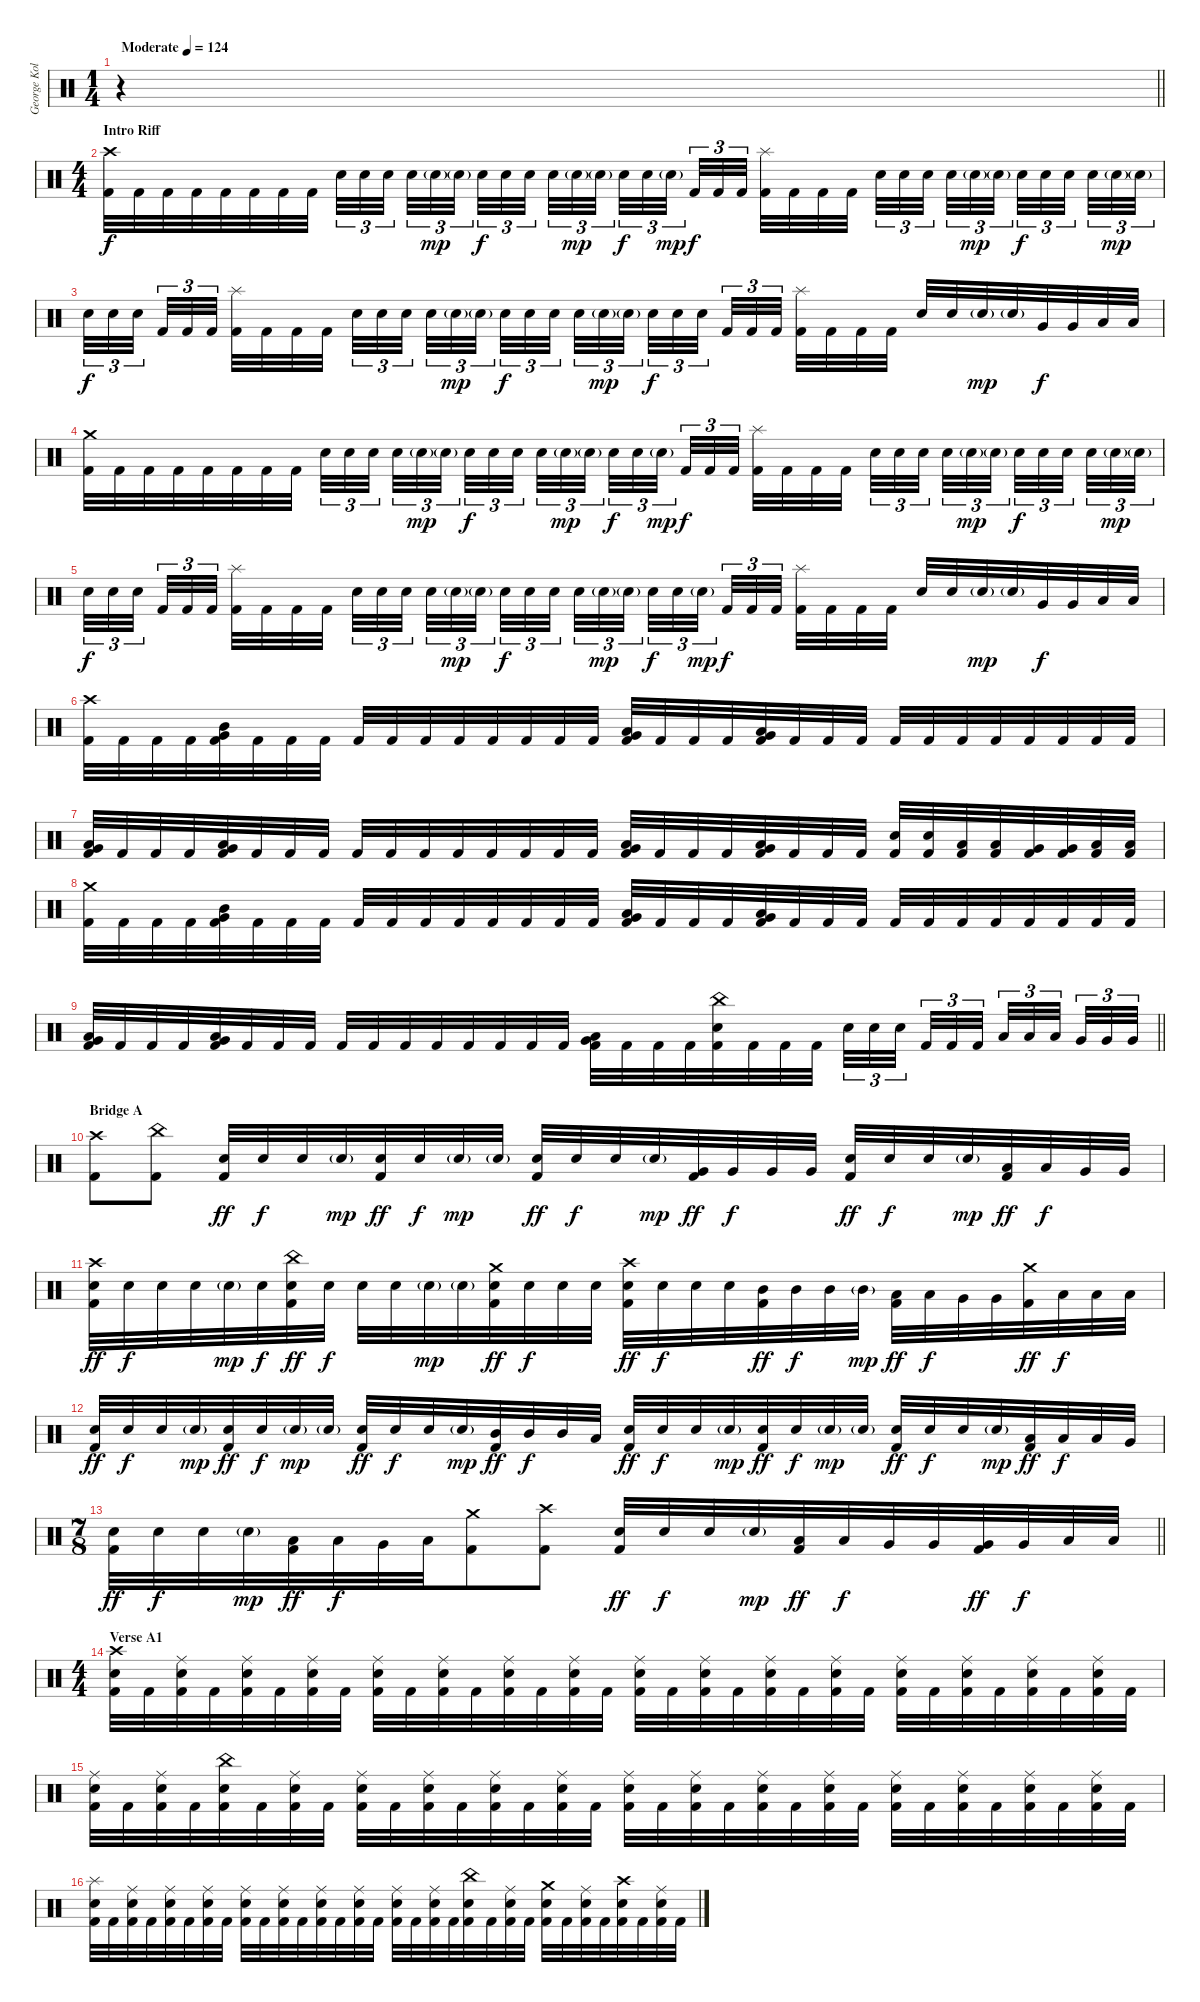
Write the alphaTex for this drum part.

\track ("George Kollias" "George Kol") {instrument percussion}
\staff {score}
\articulation defaults
\ts (1 4)
\tempo (124 "Moderate")
\clef neutral
\barLineRight lightlight
\ks c
r.4{dy f} |
\ts (4 4)
\section ("" "Intro Riff")
("Crash high (hit)" "Kick (hit) 2").32 "Kick (hit) 2".32 "Kick (hit) 2".32 "Kick (hit) 2".32 "Kick (hit) 2".32 "Kick (hit) 2".32 "Kick (hit) 2".32 "Kick (hit) 2".32 "Electric Snare (hit)".32{tu (3 2)} "Electric Snare (hit)".32{tu (3 2)} "Electric Snare (hit)".32{tu (3 2) beam splitsecondary} "Electric Snare (hit)".32{tu (3 2)} "Electric Snare (hit)"{g}.32{tu (3 2) dy mp} "Electric Snare (hit)"{g}.32{tu (3 2) beam splitsecondary} "Electric Snare (hit)".32{tu (3 2) dy f} "Electric Snare (hit)".32{tu (3 2)} "Electric Snare (hit)".32{tu (3 2) beam splitsecondary} "Electric Snare (hit)".32{tu (3 2)} "Electric Snare (hit)"{g}.32{tu (3 2) dy mp} "Electric Snare (hit)"{g}.32{tu (3 2)} "Electric Snare (hit)".32{tu (3 2) dy f} "Electric Snare (hit)".32{tu (3 2)} "Electric Snare (hit)"{g}.32{tu (3 2) dy mp beam splitsecondary} "Kick (hit) 2".32{tu (3 2) dy f} "Kick (hit) 2".32{tu (3 2)} "Kick (hit) 2".32{tu (3 2) beam splitsecondary} ("Splash (hit)" "Kick (hit) 2").32 "Kick (hit) 2".32 "Kick (hit) 2".32 "Kick (hit) 2".32 "Electric Snare (hit)".32{tu (3 2)} "Electric Snare (hit)".32{tu (3 2)} "Electric Snare (hit)".32{tu (3 2) beam splitsecondary} "Electric Snare (hit)".32{tu (3 2)} "Electric Snare (hit)"{g}.32{tu (3 2) dy mp} "Electric Snare (hit)"{g}.32{tu (3 2) beam splitsecondary} "Electric Snare (hit)".32{tu (3 2) dy f} "Electric Snare (hit)".32{tu (3 2)} "Electric Snare (hit)".32{tu (3 2) beam splitsecondary} "Electric Snare (hit)".32{tu (3 2)} "Electric Snare (hit)"{g}.32{tu (3 2) dy mp} "Electric Snare (hit)"{g}.32{tu (3 2)} |
"Electric Snare (hit)".32{tu (3 2) dy f} "Electric Snare (hit)".32{tu (3 2)} "Electric Snare (hit)".32{tu (3 2) beam splitsecondary} "Kick (hit) 2".32{tu (3 2)} "Kick (hit) 2".32{tu (3 2)} "Kick (hit) 2".32{tu (3 2) beam splitsecondary} ("Splash (hit)" "Kick (hit) 2").32 "Kick (hit) 2".32 "Kick (hit) 2".32 "Kick (hit) 2".32 "Electric Snare (hit)".32{tu (3 2)} "Electric Snare (hit)".32{tu (3 2)} "Electric Snare (hit)".32{tu (3 2) beam splitsecondary} "Electric Snare (hit)".32{tu (3 2)} "Electric Snare (hit)"{g}.32{tu (3 2) dy mp} "Electric Snare (hit)"{g}.32{tu (3 2) beam splitsecondary} "Electric Snare (hit)".32{tu (3 2) dy f} "Electric Snare (hit)".32{tu (3 2)} "Electric Snare (hit)".32{tu (3 2) beam splitsecondary} "Electric Snare (hit)".32{tu (3 2)} "Electric Snare (hit)"{g}.32{tu (3 2) dy mp} "Electric Snare (hit)"{g}.32{tu (3 2)} "Electric Snare (hit)".32{tu (3 2) dy f} "Electric Snare (hit)".32{tu (3 2)} "Electric Snare (hit)".32{tu (3 2) beam splitsecondary} "Kick (hit) 2".32{tu (3 2)} "Kick (hit) 2".32{tu (3 2)} "Kick (hit) 2".32{tu (3 2) beam splitsecondary} ("Splash (hit)" "Kick (hit) 2").32 "Kick (hit) 2".32 "Kick (hit) 2".32 "Kick (hit) 2".32 "Electric Snare (hit)".32 "Electric Snare (hit)".32 "Electric Snare (hit)"{g}.32{dy mp} "Electric Snare (hit)"{g}.32 "Very Low Tom (hit)".32{dy f} "Very Low Tom (hit)".32 "Low Floor Tom (hit)".32 "Low Floor Tom (hit)".32 |
("Crash medium (hit)" "Kick (hit) 2").32 "Kick (hit) 2".32 "Kick (hit) 2".32 "Kick (hit) 2".32 "Kick (hit) 2".32 "Kick (hit) 2".32 "Kick (hit) 2".32 "Kick (hit) 2".32 "Electric Snare (hit)".32{tu (3 2)} "Electric Snare (hit)".32{tu (3 2)} "Electric Snare (hit)".32{tu (3 2) beam splitsecondary} "Electric Snare (hit)".32{tu (3 2)} "Electric Snare (hit)"{g}.32{tu (3 2) dy mp} "Electric Snare (hit)"{g}.32{tu (3 2) beam splitsecondary} "Electric Snare (hit)".32{tu (3 2) dy f} "Electric Snare (hit)".32{tu (3 2)} "Electric Snare (hit)".32{tu (3 2) beam splitsecondary} "Electric Snare (hit)".32{tu (3 2)} "Electric Snare (hit)"{g}.32{tu (3 2) dy mp} "Electric Snare (hit)"{g}.32{tu (3 2)} "Electric Snare (hit)".32{tu (3 2) dy f} "Electric Snare (hit)".32{tu (3 2)} "Electric Snare (hit)"{g}.32{tu (3 2) dy mp beam splitsecondary} "Kick (hit) 2".32{tu (3 2) dy f} "Kick (hit) 2".32{tu (3 2)} "Kick (hit) 2".32{tu (3 2) beam splitsecondary} ("Splash (hit)" "Kick (hit) 2").32 "Kick (hit) 2".32 "Kick (hit) 2".32 "Kick (hit) 2".32 "Electric Snare (hit)".32{tu (3 2)} "Electric Snare (hit)".32{tu (3 2)} "Electric Snare (hit)".32{tu (3 2) beam splitsecondary} "Electric Snare (hit)".32{tu (3 2)} "Electric Snare (hit)"{g}.32{tu (3 2) dy mp} "Electric Snare (hit)"{g}.32{tu (3 2) beam splitsecondary} "Electric Snare (hit)".32{tu (3 2) dy f} "Electric Snare (hit)".32{tu (3 2)} "Electric Snare (hit)".32{tu (3 2) beam splitsecondary} "Electric Snare (hit)".32{tu (3 2)} "Electric Snare (hit)"{g}.32{tu (3 2) dy mp} "Electric Snare (hit)"{g}.32{tu (3 2)} |
"Electric Snare (hit)".32{tu (3 2) dy f} "Electric Snare (hit)".32{tu (3 2)} "Electric Snare (hit)".32{tu (3 2) beam splitsecondary} "Kick (hit) 2".32{tu (3 2)} "Kick (hit) 2".32{tu (3 2)} "Kick (hit) 2".32{tu (3 2) beam splitsecondary} ("Splash (hit)" "Kick (hit) 2").32 "Kick (hit) 2".32 "Kick (hit) 2".32 "Kick (hit) 2".32 "Electric Snare (hit)".32{tu (3 2)} "Electric Snare (hit)".32{tu (3 2)} "Electric Snare (hit)".32{tu (3 2) beam splitsecondary} "Electric Snare (hit)".32{tu (3 2)} "Electric Snare (hit)"{g}.32{tu (3 2) dy mp} "Electric Snare (hit)"{g}.32{tu (3 2) beam splitsecondary} "Electric Snare (hit)".32{tu (3 2) dy f} "Electric Snare (hit)".32{tu (3 2)} "Electric Snare (hit)".32{tu (3 2) beam splitsecondary} "Electric Snare (hit)".32{tu (3 2)} "Electric Snare (hit)"{g}.32{tu (3 2) dy mp} "Electric Snare (hit)"{g}.32{tu (3 2)} "Electric Snare (hit)".32{tu (3 2) dy f} "Electric Snare (hit)".32{tu (3 2)} "Electric Snare (hit)"{g}.32{tu (3 2) dy mp beam splitsecondary} "Kick (hit) 2".32{tu (3 2) dy f} "Kick (hit) 2".32{tu (3 2)} "Kick (hit) 2".32{tu (3 2) beam splitsecondary} ("Splash (hit)" "Kick (hit) 2").32 "Kick (hit) 2".32 "Kick (hit) 2".32 "Kick (hit) 2".32 "Electric Snare (hit)".32 "Electric Snare (hit)".32 "Electric Snare (hit)"{g}.32{dy mp} "Electric Snare (hit)"{g}.32 "Very Low Tom (hit)".32{dy f} "Very Low Tom (hit)".32 "Low Floor Tom (hit)".32 "Low Floor Tom (hit)".32 |
("Crash high (hit)" "Kick (hit) 2").32 "Kick (hit) 2".32 "Kick (hit) 2".32 "Kick (hit) 2".32 ("Mid Tom (hit)" "Very Low Tom (hit)" "Kick (hit) 2").32 "Kick (hit) 2".32 "Kick (hit) 2".32 "Kick (hit) 2".32 "Kick (hit) 2".32 "Kick (hit) 2".32 "Kick (hit) 2".32 "Kick (hit) 2".32 "Kick (hit) 2".32 "Kick (hit) 2".32 "Kick (hit) 2".32 "Kick (hit) 2".32 ("Low Tom (hit)" "Very Low Tom (hit)" "Kick (hit) 2").32 "Kick (hit) 2".32 "Kick (hit) 2".32 "Kick (hit) 2".32 ("Very Low Tom (hit)" "Low Floor Tom (hit)" "Kick (hit) 2").32 "Kick (hit) 2".32 "Kick (hit) 2".32 "Kick (hit) 2".32 "Kick (hit) 2".32 "Kick (hit) 2".32 "Kick (hit) 2".32 "Kick (hit) 2".32 "Kick (hit) 2".32 "Kick (hit) 2".32 "Kick (hit) 2".32 "Kick (hit) 2".32 |
("Low Tom (hit)" "Very Low Tom (hit)" "Kick (hit) 2").32 "Kick (hit) 2".32 "Kick (hit) 2".32 "Kick (hit) 2".32 ("Very Low Tom (hit)" "Low Floor Tom (hit)" "Kick (hit) 2").32 "Kick (hit) 2".32 "Kick (hit) 2".32 "Kick (hit) 2".32 "Kick (hit) 2".32 "Kick (hit) 2".32 "Kick (hit) 2".32 "Kick (hit) 2".32 "Kick (hit) 2".32 "Kick (hit) 2".32 "Kick (hit) 2".32 "Kick (hit) 2".32 ("Low Tom (hit)" "Very Low Tom (hit)" "Kick (hit) 2").32 "Kick (hit) 2".32 "Kick (hit) 2".32 "Kick (hit) 2".32 ("Very Low Tom (hit)" "Low Floor Tom (hit)" "Kick (hit) 2").32 "Kick (hit) 2".32 "Kick (hit) 2".32 "Kick (hit) 2".32 ("Electric Snare (hit)" "Kick (hit) 2").32 ("Electric Snare (hit)" "Kick (hit) 2").32 ("Low Tom (hit)" "Kick (hit) 2").32 ("Low Tom (hit)" "Kick (hit) 2").32 ("Very Low Tom (hit)" "Kick (hit) 2").32 ("Very Low Tom (hit)" "Kick (hit) 2").32 ("Low Floor Tom (hit)" "Kick (hit) 2").32 ("Low Floor Tom (hit)" "Kick (hit) 2").32 |
("Crash medium (hit)" "Kick (hit) 2").32 "Kick (hit) 2".32 "Kick (hit) 2".32 "Kick (hit) 2".32 ("Mid Tom (hit)" "Very Low Tom (hit)" "Kick (hit) 2").32 "Kick (hit) 2".32 "Kick (hit) 2".32 "Kick (hit) 2".32 "Kick (hit) 2".32 "Kick (hit) 2".32 "Kick (hit) 2".32 "Kick (hit) 2".32 "Kick (hit) 2".32 "Kick (hit) 2".32 "Kick (hit) 2".32 "Kick (hit) 2".32 ("Low Tom (hit)" "Very Low Tom (hit)" "Kick (hit) 2").32 "Kick (hit) 2".32 "Kick (hit) 2".32 "Kick (hit) 2".32 ("Very Low Tom (hit)" "Low Floor Tom (hit)" "Kick (hit) 2").32 "Kick (hit) 2".32 "Kick (hit) 2".32 "Kick (hit) 2".32 "Kick (hit) 2".32 "Kick (hit) 2".32 "Kick (hit) 2".32 "Kick (hit) 2".32 "Kick (hit) 2".32 "Kick (hit) 2".32 "Kick (hit) 2".32 "Kick (hit) 2".32 |
\barLineRight lightlight
("Low Tom (hit)" "Very Low Tom (hit)" "Kick (hit) 2").32 "Kick (hit) 2".32 "Kick (hit) 2".32 "Kick (hit) 2".32 ("Very Low Tom (hit)" "Low Floor Tom (hit)" "Kick (hit) 2").32 "Kick (hit) 2".32 "Kick (hit) 2".32 "Kick (hit) 2".32 "Kick (hit) 2".32 "Kick (hit) 2".32 "Kick (hit) 2".32 "Kick (hit) 2".32 "Kick (hit) 2".32 "Kick (hit) 2".32 "Kick (hit) 2".32 "Kick (hit) 2".32 ("Low Tom (hit)" "Very Low Tom (hit)" "Kick (hit) 2").32 "Kick (hit) 2".32 "Kick (hit) 2".32 "Kick (hit) 2".32 ("China (hit)" "Electric Snare (hit)" "Kick (hit) 2").32 "Kick (hit) 2".32 "Kick (hit) 2".32 "Kick (hit) 2".32 "Electric Snare (hit)".32{tu (3 2)} "Electric Snare (hit)".32{tu (3 2)} "Electric Snare (hit)".32{tu (3 2) beam splitsecondary} "Kick (hit) 2".32{tu (3 2)} "Kick (hit) 2".32{tu (3 2)} "Kick (hit) 2".32{tu (3 2) beam splitsecondary} "Low Tom (hit)".32{tu (3 2)} "Low Tom (hit)".32{tu (3 2)} "Low Tom (hit)".32{tu (3 2) beam splitsecondary} "Very Low Tom (hit)".32{tu (3 2)} "Very Low Tom (hit)".32{tu (3 2)} "Very Low Tom (hit)".32{tu (3 2)} |
\section ("" "Bridge A")
("Crash high (hit)" "Kick (hit) 2").8 ("China (hit)" "Kick (hit) 2").8 ("Electric Snare (hit)" "Kick (hit) 2").32{dy ff} "Electric Snare (hit)".32{dy f} "Electric Snare (hit)".32 "Electric Snare (hit)"{g}.32{dy mp} ("Electric Snare (hit)" "Kick (hit) 2").32{dy ff} "Electric Snare (hit)".32{dy f} "Electric Snare (hit)"{g}.32{dy mp} "Electric Snare (hit)"{g}.32 ("Electric Snare (hit)" "Kick (hit) 2").32{dy ff} "Electric Snare (hit)".32{dy f} "Electric Snare (hit)".32 "Electric Snare (hit)"{g}.32{dy mp} ("Very Low Tom (hit)" "Kick (hit) 2").32{dy ff} "Very Low Tom (hit)".32{dy f} "Very Low Tom (hit)".32 "Very Low Tom (hit)".32 ("Electric Snare (hit)" "Kick (hit) 2").32{dy ff} "Electric Snare (hit)".32{dy f} "Electric Snare (hit)".32 "Electric Snare (hit)"{g}.32{dy mp} ("Low Tom (hit)" "Kick (hit) 2").32{dy ff} "Low Tom (hit)".32{dy f} "Very Low Tom (hit)".32 "Very Low Tom (hit)".32 |
("Crash high (hit)" "Electric Snare (hit)" "Kick (hit) 2").32{dy ff} "Electric Snare (hit)".32{dy f} "Electric Snare (hit)".32 "Electric Snare (hit)".32 "Electric Snare (hit)"{g}.32{dy mp} "Electric Snare (hit)".32{dy f} ("China (hit)" "Electric Snare (hit)" "Kick (hit) 2").32{dy ff} "Electric Snare (hit)".32{dy f} "Electric Snare (hit)".32 "Electric Snare (hit)".32 "Electric Snare (hit)"{g}.32{dy mp} "Electric Snare (hit)"{g}.32 ("Crash medium (hit)" "Electric Snare (hit)" "Kick (hit) 2").32{dy ff} "Electric Snare (hit)".32{dy f} "Electric Snare (hit)".32 "Electric Snare (hit)".32 ("Crash high (hit)" "Electric Snare (hit)" "Kick (hit) 2").32{dy ff} "Electric Snare (hit)".32{dy f} "Electric Snare (hit)".32 "Electric Snare (hit)".32 ("Mid Tom (hit)" "Kick (hit) 2").32{dy ff} "Mid Tom (hit)".32{dy f} "Mid Tom (hit)".32 "Mid Tom (hit)"{g}.32{dy mp} ("Low Tom (hit)" "Kick (hit) 2").32{dy ff} "Low Tom (hit)".32{dy f} "Very Low Tom (hit)".32 "Very Low Tom (hit)".32 ("Crash medium (hit)" "Kick (hit) 2").32{dy ff} "Low Floor Tom (hit)".32{dy f} "Low Floor Tom (hit)".32 "Low Floor Tom (hit)".32 |
("Electric Snare (hit)" "Kick (hit) 2").32{dy ff} "Electric Snare (hit)".32{dy f} "Electric Snare (hit)".32 "Electric Snare (hit)"{g}.32{dy mp} ("Electric Snare (hit)" "Kick (hit) 2").32{dy ff} "Electric Snare (hit)".32{dy f} "Electric Snare (hit)"{g}.32{dy mp} "Electric Snare (hit)"{g}.32 ("Electric Snare (hit)" "Kick (hit) 2").32{dy ff} "Electric Snare (hit)".32{dy f} "Electric Snare (hit)".32 "Electric Snare (hit)"{g}.32{dy mp} ("Mid Tom (hit)" "Kick (hit) 2").32{dy ff} "Mid Tom (hit)".32{dy f} "Mid Tom (hit)".32 "Low Tom (hit)".32 ("Electric Snare (hit)" "Kick (hit) 2").32{dy ff} "Electric Snare (hit)".32{dy f} "Electric Snare (hit)".32 "Electric Snare (hit)"{g}.32{dy mp} ("Electric Snare (hit)" "Kick (hit) 2").32{dy ff} "Electric Snare (hit)".32{dy f} "Electric Snare (hit)"{g}.32{dy mp} "Electric Snare (hit)"{g}.32 ("Electric Snare (hit)" "Kick (hit) 2").32{dy ff} "Electric Snare (hit)".32{dy f} "Electric Snare (hit)".32 "Electric Snare (hit)"{g}.32{dy mp} ("Low Tom (hit)" "Kick (hit) 2").32{dy ff} "Low Tom (hit)".32{dy f} "Low Tom (hit)".32 "Very Low Tom (hit)".32 |
\ts (7 8)
\barLineRight lightlight
("Electric Snare (hit)" "Kick (hit) 2").32{dy ff} "Electric Snare (hit)".32{dy f} "Electric Snare (hit)".32 "Electric Snare (hit)"{g}.32{dy mp} ("Low Tom (hit)" "Kick (hit) 2").32{dy ff} "Low Tom (hit)".32{dy f} "Very Low Tom (hit)".32 "Low Floor Tom (hit)".32 ("Crash medium (hit)" "Kick (hit) 2").8 ("Crash high (hit)" "Kick (hit) 2").8 ("Electric Snare (hit)" "Kick (hit) 2").32{dy ff} "Electric Snare (hit)".32{dy f} "Electric Snare (hit)".32 "Electric Snare (hit)"{g}.32{dy mp} ("Low Tom (hit)" "Kick (hit) 2").32{dy ff} "Low Tom (hit)".32{dy f} "Very Low Tom (hit)".32 "Very Low Tom (hit)".32 ("Very Low Tom (hit)" "Kick (hit) 2").32{dy ff} "Very Low Tom (hit)".32{dy f} "Low Floor Tom (hit)".32 "Low Floor Tom (hit)".32 |
\ts (4 4)
\section ("" "Verse A1")
("Crash high (hit)" "Electric Snare (hit)" "Kick (hit) 2").32 "Kick (hit) 2".32 ("Ride (middle)" "Electric Snare (hit)" "Kick (hit) 2").32 "Kick (hit) 2".32 ("Ride (middle)" "Electric Snare (hit)" "Kick (hit) 2").32 "Kick (hit) 2".32 ("Ride (middle)" "Electric Snare (hit)" "Kick (hit) 2").32 "Kick (hit) 2".32 ("Ride (middle)" "Electric Snare (hit)" "Kick (hit) 2").32 "Kick (hit) 2".32 ("Ride (middle)" "Electric Snare (hit)" "Kick (hit) 2").32 "Kick (hit) 2".32 ("Ride (middle)" "Electric Snare (hit)" "Kick (hit) 2").32 "Kick (hit) 2".32 ("Ride (middle)" "Electric Snare (hit)" "Kick (hit) 2").32 "Kick (hit) 2".32 ("Ride (middle)" "Electric Snare (hit)" "Kick (hit) 2").32 "Kick (hit) 2".32 ("Ride (middle)" "Electric Snare (hit)" "Kick (hit) 2").32 "Kick (hit) 2".32 ("Ride (middle)" "Electric Snare (hit)" "Kick (hit) 2").32 "Kick (hit) 2".32 ("Ride (middle)" "Electric Snare (hit)" "Kick (hit) 2").32 "Kick (hit) 2".32 ("Ride (middle)" "Electric Snare (hit)" "Kick (hit) 2").32 "Kick (hit) 2".32 ("Ride (middle)" "Electric Snare (hit)" "Kick (hit) 2").32 "Kick (hit) 2".32 ("Ride (middle)" "Electric Snare (hit)" "Kick (hit) 2").32 "Kick (hit) 2".32 ("Ride (middle)" "Electric Snare (hit)" "Kick (hit) 2").32 "Kick (hit) 2".32 |
("Ride (middle)" "Electric Snare (hit)" "Kick (hit) 2").32 "Kick (hit) 2".32 ("Ride (middle)" "Electric Snare (hit)" "Kick (hit) 2").32 "Kick (hit) 2".32 ("China (hit)" "Electric Snare (hit)" "Kick (hit) 2").32 "Kick (hit) 2".32 ("Ride (middle)" "Electric Snare (hit)" "Kick (hit) 2").32 "Kick (hit) 2".32 ("Ride (middle)" "Electric Snare (hit)" "Kick (hit) 2").32 "Kick (hit) 2".32 ("Ride (middle)" "Electric Snare (hit)" "Kick (hit) 2").32 "Kick (hit) 2".32 ("Ride (middle)" "Electric Snare (hit)" "Kick (hit) 2").32 "Kick (hit) 2".32 ("Ride (middle)" "Electric Snare (hit)" "Kick (hit) 2").32 "Kick (hit) 2".32 ("Ride (middle)" "Electric Snare (hit)" "Kick (hit) 2").32 "Kick (hit) 2".32 ("Ride (middle)" "Electric Snare (hit)" "Kick (hit) 2").32 "Kick (hit) 2".32 ("Ride (middle)" "Electric Snare (hit)" "Kick (hit) 2").32 "Kick (hit) 2".32 ("Ride (middle)" "Electric Snare (hit)" "Kick (hit) 2").32 "Kick (hit) 2".32 ("Ride (middle)" "Electric Snare (hit)" "Kick (hit) 2").32 "Kick (hit) 2".32 ("Ride (middle)" "Electric Snare (hit)" "Kick (hit) 2").32 "Kick (hit) 2".32 ("Ride (middle)" "Electric Snare (hit)" "Kick (hit) 2").32 "Kick (hit) 2".32 ("Ride (middle)" "Electric Snare (hit)" "Kick (hit) 2").32 "Kick (hit) 2".32 |
("Splash (hit)" "Electric Snare (hit)" "Kick (hit) 2").32 "Kick (hit) 2".32 ("Ride (middle)" "Electric Snare (hit)" "Kick (hit) 2").32 "Kick (hit) 2".32 ("Ride (middle)" "Electric Snare (hit)" "Kick (hit) 2").32 "Kick (hit) 2".32 ("Ride (middle)" "Electric Snare (hit)" "Kick (hit) 2").32 "Kick (hit) 2".32 ("Ride (middle)" "Electric Snare (hit)" "Kick (hit) 2").32 "Kick (hit) 2".32 ("Ride (middle)" "Electric Snare (hit)" "Kick (hit) 2").32 "Kick (hit) 2".32 ("Ride (middle)" "Electric Snare (hit)" "Kick (hit) 2").32 "Kick (hit) 2".32 ("Ride (middle)" "Electric Snare (hit)" "Kick (hit) 2").32 "Kick (hit) 2".32 ("Ride (middle)" "Electric Snare (hit)" "Kick (hit) 2").32 "Kick (hit) 2".32 ("Ride (middle)" "Electric Snare (hit)" "Kick (hit) 2").32 "Kick (hit) 2".32 ("China (hit)" "Electric Snare (hit)" "Kick (hit) 2").32 "Kick (hit) 2".32 ("Ride (middle)" "Electric Snare (hit)" "Kick (hit) 2").32 "Kick (hit) 2".32 ("Crash medium (hit)" "Electric Snare (hit)" "Kick (hit) 2").32 "Kick (hit) 2".32 ("Ride (middle)" "Electric Snare (hit)" "Kick (hit) 2").32 "Kick (hit) 2".32 ("Crash high (hit)" "Electric Snare (hit)" "Kick (hit) 2").32 "Kick (hit) 2".32 ("Ride (middle)" "Electric Snare (hit)" "Kick (hit) 2").32 "Kick (hit) 2".32
